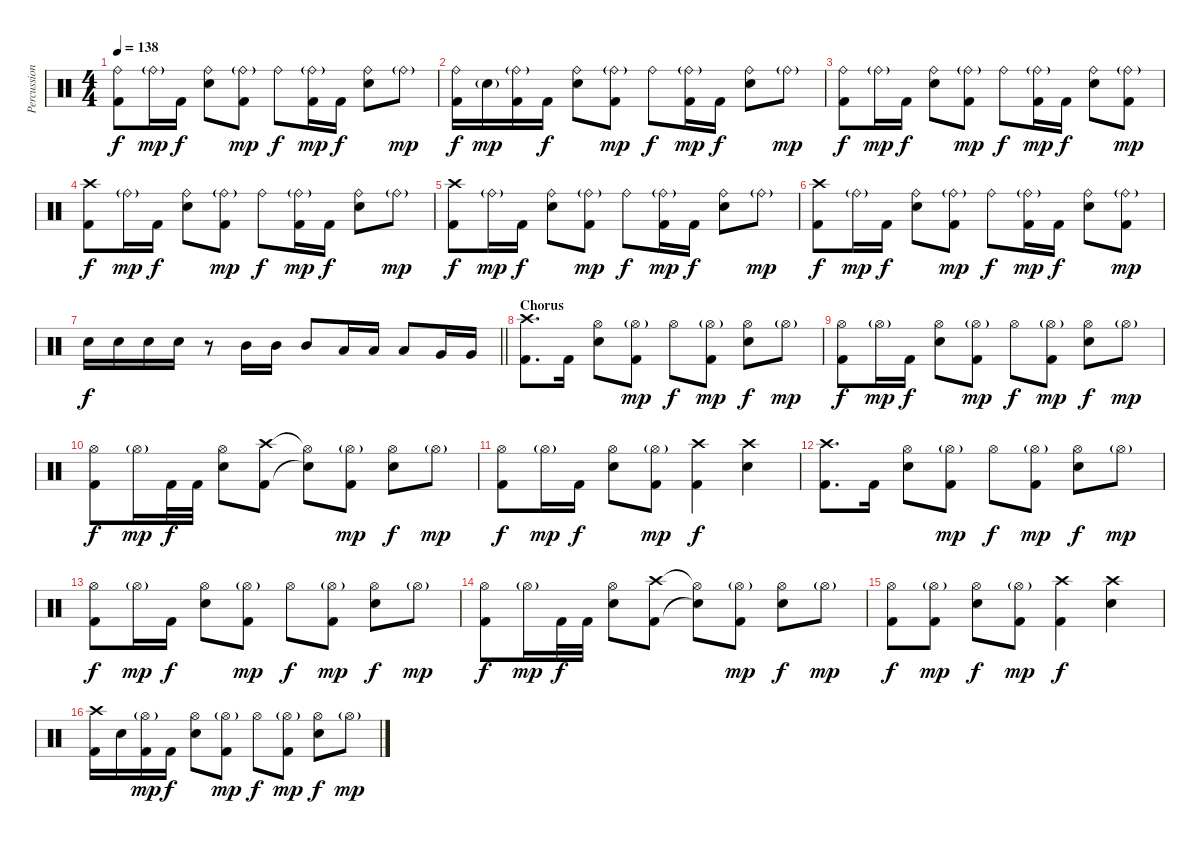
\track ("Percussion" "Percussion") {instrument percussion}
\staff {score}
\articulation defaults
\ts (4 4)
\tempo 138
\clef neutral
\ks c
("Ride (bell)" "Kick (hit) 2").8{dy f} "Ride (bell)"{g}.16{dy mp} "Kick (hit) 2".16{dy f} ("Ride (bell)" "Snare (hit) 2").8 ("Ride (bell)"{g} "Kick (hit) 2").8{dy mp} "Ride (bell)".8{dy f} ("Ride (bell)"{g} "Kick (hit) 2").16{dy mp} "Kick (hit) 2".16{dy f} ("Ride (bell)" "Snare (hit) 2").8 "Ride (bell)"{g}.8{dy mp} |
("Ride (bell)" "Kick (hit) 2").16{dy f} "Snare (hit) 2"{g}.16{dy mp} ("Ride (bell)"{g} "Kick (hit) 2").16 "Kick (hit) 2".16{dy f} ("Ride (bell)" "Snare (hit) 2").8 ("Ride (bell)"{g} "Kick (hit) 2").8{dy mp} "Ride (bell)".8{dy f} ("Ride (bell)"{g} "Kick (hit) 2").16{dy mp} "Kick (hit) 2".16{dy f} ("Ride (bell)" "Snare (hit) 2").8 "Ride (bell)"{g}.8{dy mp} |
("Ride (bell)" "Kick (hit) 2").8{dy f} "Ride (bell)"{g}.16{dy mp} "Kick (hit) 2".16{dy f} ("Ride (bell)" "Snare (hit) 2").8 ("Ride (bell)"{g} "Kick (hit) 2").8{dy mp} "Ride (bell)".8{dy f} ("Ride (bell)"{g} "Kick (hit) 2").16{dy mp} "Kick (hit) 2".16{dy f} ("Ride (bell)" "Snare (hit) 2").8 ("Ride (bell)"{g} "Kick (hit) 2").8{dy mp} |
("Crash high (hit)" "Kick (hit) 2").8{dy f} "Ride (bell)"{g}.16{dy mp} "Kick (hit) 2".16{dy f} ("Ride (bell)" "Snare (hit) 2").8 ("Ride (bell)"{g} "Kick (hit) 2").8{dy mp} "Ride (bell)".8{dy f} ("Ride (bell)"{g} "Kick (hit) 2").16{dy mp} "Kick (hit) 2".16{dy f} ("Ride (bell)" "Snare (hit) 2").8 "Ride (bell)"{g}.8{dy mp} |
("Crash high (hit)" "Kick (hit) 2").8{dy f} "Ride (bell)"{g}.16{dy mp} "Kick (hit) 2".16{dy f} ("Ride (bell)" "Snare (hit) 2").8 ("Ride (bell)"{g} "Kick (hit) 2").8{dy mp} "Ride (bell)".8{dy f} ("Ride (bell)"{g} "Kick (hit) 2").16{dy mp} "Kick (hit) 2".16{dy f} ("Ride (bell)" "Snare (hit) 2").8 "Ride (bell)"{g}.8{dy mp} |
("Crash high (hit)" "Kick (hit) 2").8{dy f} "Ride (bell)"{g}.16{dy mp} "Kick (hit) 2".16{dy f} ("Ride (bell)" "Snare (hit) 2").8 ("Ride (bell)"{g} "Kick (hit) 2").8{dy mp} "Ride (bell)".8{dy f} ("Ride (bell)"{g} "Kick (hit) 2").16{dy mp} "Kick (hit) 2".16{dy f} ("Ride (bell)" "Snare (hit) 2").8 ("Ride (bell)"{g} "Kick (hit) 2").8{dy mp} |
\barLineRight lightlight "Snare (hit) 2".16{dy f} "Snare (hit) 2".16 "Snare (hit) 2".16 "Snare (hit) 2".16
r.8 "Mid Tom (hit)".16 "Mid Tom (hit)".16 "Mid Tom (hit)".8 "Low Tom (hit)".16 "Low Tom (hit)".16 "Low Tom (hit)".8 "Very Low Tom (hit)".16 "Very Low Tom (hit)".16 |
\section ("" "Chorus")
("Crash high (hit)" "Kick (hit) 2").8{d} "Kick (hit) 2".16 ("Hi-Hat (open)" "Snare (hit) 2").8 ("Hi-Hat (open)"{g} "Kick (hit) 2").8{dy mp} "Hi-Hat (open)".8{dy f} ("Hi-Hat (open)"{g} "Kick (hit) 2").8{dy mp} ("Hi-Hat (open)" "Snare (hit) 2").8{dy f} "Hi-Hat (open)"{g}.8{dy mp} |
("Hi-Hat (open)" "Kick (hit) 2").8{dy f} "Hi-Hat (open)"{g}.16{dy mp} "Kick (hit) 2".16{dy f} ("Hi-Hat (open)" "Snare (hit) 2").8 ("Hi-Hat (open)"{g} "Kick (hit) 2").8{dy mp} "Hi-Hat (open)".8{dy f} ("Hi-Hat (open)"{g} "Kick (hit) 2").8{dy mp} ("Hi-Hat (open)" "Snare (hit) 2").8{dy f} "Hi-Hat (open)"{g}.8{dy mp} |
("Hi-Hat (open)" "Kick (hit) 2").8{dy f} "Hi-Hat (open)"{g}.16{dy mp} "Kick (hit) 2".32{dy f} "Kick (hit) 2".32 ("Hi-Hat (open)" "Snare (hit) 2").8 ("Crash high (hit)" "Kick (hit) 2").8 ("Hi-Hat (open)"{t} "Snare (hit)"{t}).8 ("Hi-Hat (open)"{g} "Kick (hit) 2").8{dy mp} ("Hi-Hat (open)" "Snare (hit) 2").8{dy f} "Hi-Hat (open)"{g}.8{dy mp} |
("Hi-Hat (open)" "Kick (hit) 2").8{dy f} "Hi-Hat (open)"{g}.16{dy mp} "Kick (hit) 2".16{dy f} ("Hi-Hat (open)" "Snare (hit) 2").8 ("Hi-Hat (open)"{g} "Kick (hit) 2").8{dy mp} ("Crash high (hit)" "Kick (hit) 2").4{dy f} ("Crash high (hit)" "Snare (hit) 2").4 |
("Crash high (hit)" "Kick (hit) 2").8{d} "Kick (hit) 2".16 ("Hi-Hat (open)" "Snare (hit) 2").8 ("Hi-Hat (open)"{g} "Kick (hit) 2").8{dy mp} "Hi-Hat (open)".8{dy f} ("Hi-Hat (open)"{g} "Kick (hit) 2").8{dy mp} ("Hi-Hat (open)" "Snare (hit) 2").8{dy f} "Hi-Hat (open)"{g}.8{dy mp} |
("Hi-Hat (open)" "Kick (hit) 2").8{dy f} "Hi-Hat (open)"{g}.16{dy mp} "Kick (hit) 2".16{dy f} ("Hi-Hat (open)" "Snare (hit) 2").8 ("Hi-Hat (open)"{g} "Kick (hit) 2").8{dy mp} "Hi-Hat (open)".8{dy f} ("Hi-Hat (open)"{g} "Kick (hit) 2").8{dy mp} ("Hi-Hat (open)" "Snare (hit) 2").8{dy f} "Hi-Hat (open)"{g}.8{dy mp} |
("Hi-Hat (open)" "Kick (hit) 2").8{dy f} "Hi-Hat (open)"{g}.16{dy mp} "Kick (hit) 2".32{dy f} "Kick (hit) 2".32 ("Hi-Hat (open)" "Snare (hit) 2").8 ("Crash high (hit)" "Kick (hit) 2").8 ("Hi-Hat (open)"{t} "Snare (hit)"{t}).8 ("Hi-Hat (open)"{g} "Kick (hit) 2").8{dy mp} ("Hi-Hat (open)" "Snare (hit) 2").8{dy f} "Hi-Hat (open)"{g}.8{dy mp} |
("Hi-Hat (open)" "Kick (hit) 2").8{dy f} ("Hi-Hat (open)"{g} "Kick (hit) 2").8{dy mp} ("Hi-Hat (open)" "Snare (hit) 2").8{dy f} ("Hi-Hat (open)"{g} "Kick (hit) 2").8{dy mp} ("Crash high (hit)" "Kick (hit) 2").4{dy f} ("Crash high (hit)" "Snare (hit) 2").4 |
("Crash high (hit)" "Kick (hit) 2").16 "Snare (hit) 2".16 ("Hi-Hat (open)"{g} "Kick (hit) 2").16{dy mp} "Kick (hit) 2".16{dy f} ("Hi-Hat (open)" "Snare (hit) 2").8 ("Hi-Hat (open)"{g} "Kick (hit) 2").8{dy mp} "Hi-Hat (open)".8{dy f} ("Hi-Hat (open)"{g} "Kick (hit) 2").8{dy mp} ("Hi-Hat (open)" "Snare (hit) 2").8{dy f} "Hi-Hat (open)"{g}.8{dy mp}
